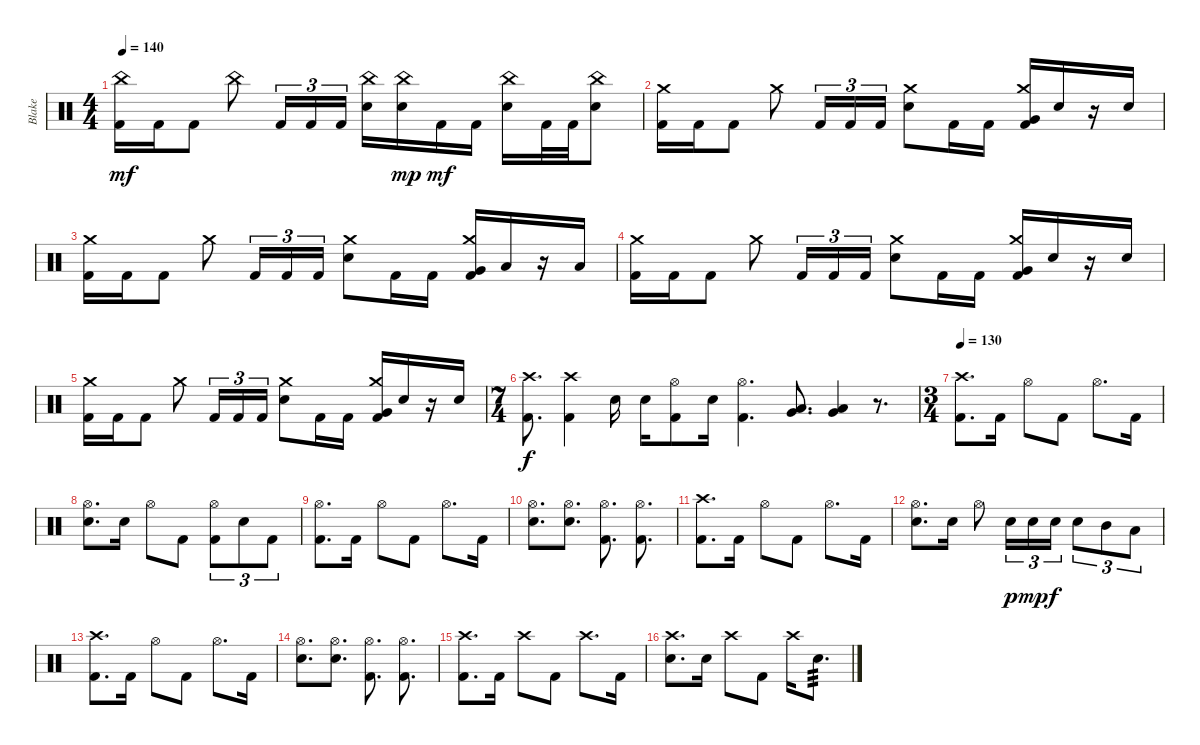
\track ("Blake" "Blake") {instrument percussion}
\staff {score}
\articulation defaults
\ts (4 4)
\tempo 140
\clef neutral
\ks c
("China (hit)" "Kick (hit) 2").16{dy mf} "Kick (hit) 2".16 "Kick (hit) 2".8 "China (hit)".8 "Kick (hit) 2".16{tu (3 2)} "Kick (hit) 2".16{tu (3 2)} "Kick (hit) 2".16{tu (3 2)} ("China (hit)" "Snare (hit) 2").16 ("China (hit)" "Snare (hit) 2").16{dy mp} "Kick (hit) 2".16{dy mf} "Kick (hit) 2".16 ("China (hit)" "Snare (hit) 2").16 "Kick (hit) 2".32 "Kick (hit) 2".32 ("China (hit)" "Snare (hit) 2").8 |
("Crash medium (hit)" "Kick (hit) 2").16 "Kick (hit) 2".16 "Kick (hit) 2".8 "Crash medium (hit)".8 "Kick (hit) 2".16{tu (3 2)} "Kick (hit) 2".16{tu (3 2)} "Kick (hit) 2".16{tu (3 2)} ("Crash medium (hit)" "Snare (hit) 2").8 "Kick (hit) 2".16 "Kick (hit) 2".16 ("Crash medium (hit)" "Very Low Tom (hit)" "Kick (hit) 2").16 "Snare (hit) 2".16 r.16 "Snare (hit) 2".16 |
("Crash medium (hit)" "Kick (hit) 2").16 "Kick (hit) 2".16 "Kick (hit) 2".8 "Crash medium (hit)".8 "Kick (hit) 2".16{tu (3 2)} "Kick (hit) 2".16{tu (3 2)} "Kick (hit) 2".16{tu (3 2)} ("Crash medium (hit)" "Snare (hit) 2").8 "Kick (hit) 2".16 "Kick (hit) 2".16 ("Crash medium (hit)" "Very Low Tom (hit)" "Kick (hit) 2").16 "Low Tom (hit)".16 r.16 "Low Tom (hit)".16 |
("Crash medium (hit)" "Kick (hit) 2").16 "Kick (hit) 2".16 "Kick (hit) 2".8 "Crash medium (hit)".8 "Kick (hit) 2".16{tu (3 2)} "Kick (hit) 2".16{tu (3 2)} "Kick (hit) 2".16{tu (3 2)} ("Crash medium (hit)" "Snare (hit) 2").8 "Kick (hit) 2".16 "Kick (hit) 2".16 ("Crash medium (hit)" "Very Low Tom (hit)" "Kick (hit) 2").16 "Snare (hit) 2".16 r.16 "Snare (hit) 2".16 |
("Crash medium (hit)" "Kick (hit) 2").16 "Kick (hit) 2".16 "Kick (hit) 2".8 "Crash medium (hit)".8 "Kick (hit) 2".16{tu (3 2)} "Kick (hit) 2".16{tu (3 2)} "Kick (hit) 2".16{tu (3 2)} ("Crash medium (hit)" "Snare (hit) 2").8 "Kick (hit) 2".16 "Kick (hit) 2".16 ("Crash medium (hit)" "Very Low Tom (hit)" "Kick (hit) 2").16 "Snare (hit) 2".16 r.16 "Snare (hit) 2".16 |
\ts (7 4)
("Crash high (hit)" "Kick (hit) 2").8{d dy f} ("Crash high (hit)" "Kick (hit) 2").4 "Snare (hit) 2".16 "Snare (hit) 2".16 ("Hi-Hat (open)" "Kick (hit) 2").8 "Snare (hit) 2".16 ("Hi-Hat (open)" "Kick (hit) 2").4{d} ("Low Tom (hit)" "Very Low Tom (hit)").8{d} ("Low Tom (hit)" "Very Low Tom (hit)").4 r.8{d} |
\ts (3 4)
\tempo 130
("Crash high (hit)" "Kick (hit) 2").8{d} "Kick (hit) 2".16 "Hi-Hat (open)".8 "Kick (hit) 2".8 "Hi-Hat (open)".8{d} "Kick (hit) 2".16 |
("Hi-Hat (open)" "Snare (hit) 2").8{d} "Snare (hit) 2".16 "Hi-Hat (open)".8 "Kick (hit) 2".8 ("Hi-Hat (open)" "Kick (hit) 2").8{tu (3 2)} "Snare (hit) 2".8{tu (3 2)} "Kick (hit) 2".8{tu (3 2)} |
("Hi-Hat (open)" "Kick (hit) 2").8{d} "Kick (hit) 2".16 "Hi-Hat (open)".8 "Kick (hit) 2".8 "Hi-Hat (open)".8{d} "Kick (hit) 2".16 |
("Hi-Hat (open)" "Snare (hit) 2").8{d} ("Hi-Hat (open)" "Snare (hit) 2").8{d} ("Hi-Hat (open)" "Kick (hit) 2").8{d} ("Hi-Hat (open)" "Kick (hit) 2").8{d} |
("Crash high (hit)" "Kick (hit) 2").8{d} "Kick (hit) 2".16 "Hi-Hat (open)".8 "Kick (hit) 2".8 "Hi-Hat (open)".8{d} "Kick (hit) 2".16 |
("Hi-Hat (open)" "Snare (hit) 2").8{d} "Snare (hit) 2".16 "Hi-Hat (open)".8 "Snare (hit) 2".16{tu (3 2) dy p} "Snare (hit) 2".16{tu (3 2) dy mp} "Snare (hit) 2".16{tu (3 2) dy f} "Snare (hit) 2".8{tu (3 2)} "Mid Tom (hit)".8{tu (3 2)} "Low Tom (hit)".8{tu (3 2)} |
("Crash high (hit)" "Kick (hit) 2").8{d} "Kick (hit) 2".16 "Hi-Hat (open)".8 "Kick (hit) 2".8 "Hi-Hat (open)".8{d} "Kick (hit) 2".16 |
("Hi-Hat (open)" "Snare (hit) 2").8{d} ("Hi-Hat (open)" "Snare (hit) 2").8{d} ("Hi-Hat (open)" "Kick (hit) 2").8{d} ("Hi-Hat (open)" "Kick (hit) 2").8{d} |
("Crash high (hit)" "Kick (hit) 2").8{d} "Kick (hit) 2".16 "Crash high (hit)".8 "Kick (hit) 2".8 "Crash high (hit)".8{d} "Kick (hit) 2".16 |
("Crash high (hit)" "Snare (hit) 2").8{d} "Snare (hit) 2".16 "Crash high (hit)".8 "Kick (hit) 2".8 "Crash high (hit)".16 "Snare (hit) 2".8{d tp 3}
